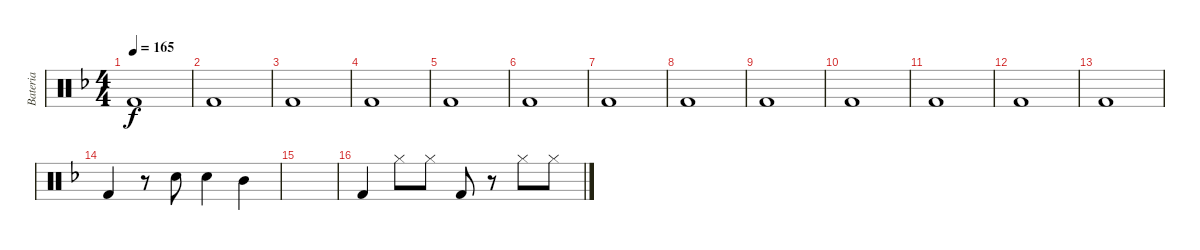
\track ("Bateria" "Bateria") {instrument percussion}
\staff {score}
\articulation defaults
\ts (4 4)
\tempo 165
\clef neutral
\ks dminor "Kick (hit) 2".1{dy f}
|
"Kick (hit) 2".1 |
"Kick (hit) 2".1 |
"Kick (hit) 2".1 |
"Kick (hit) 2".1 |
"Kick (hit) 2".1 |
"Kick (hit) 2".1 |
"Kick (hit) 2".1 |
"Kick (hit) 2".1 |
"Kick (hit) 2".1 |
"Kick (hit) 2".1 |
"Kick (hit) 2".1 |
"Kick (hit) 2".1 |
"Kick (hit) 2".4 r.8 "Snare (hit) 2".8 "Snare (hit) 2".4 "Mid Tom (hit)".4 |
|
"Kick (hit) 2".4 "Hi-Hat (closed)".8 "Hi-Hat (closed)".8 "Kick (hit) 2".8 r.8 "Hi-Hat (closed)".8 "Hi-Hat (closed)".8
